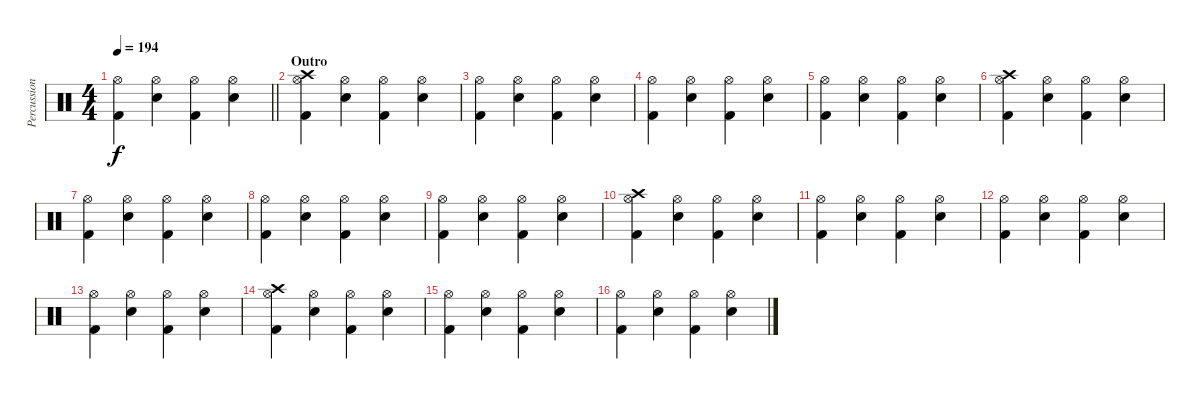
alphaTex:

\track ("Percussion" "Percussion") {instrument percussion}
\staff {score}
\articulation defaults
\ts (4 4)
\tempo 194
\clef neutral
\barLineRight lightlight
\ks c
("Hi-Hat (open)" "Kick (hit) 2").4{dy f} ("Hi-Hat (open)" "Electric Snare (hit)").4 ("Hi-Hat (open)" "Kick (hit) 2").4 ("Hi-Hat (open)" "Electric Snare (hit)").4 |
\section ("" "Outro")
("Crash high (hit)" "Hi-Hat (open)" "Kick (hit) 2").4 ("Hi-Hat (open)" "Electric Snare (hit)").4 ("Hi-Hat (open)" "Kick (hit) 2").4 ("Hi-Hat (open)" "Electric Snare (hit)").4 |
("Hi-Hat (open)" "Kick (hit) 2").4 ("Hi-Hat (open)" "Electric Snare (hit)").4 ("Hi-Hat (open)" "Kick (hit) 2").4 ("Hi-Hat (open)" "Electric Snare (hit)").4 |
("Hi-Hat (open)" "Kick (hit) 2").4 ("Hi-Hat (open)" "Electric Snare (hit)").4 ("Hi-Hat (open)" "Kick (hit) 2").4 ("Hi-Hat (open)" "Electric Snare (hit)").4 |
("Hi-Hat (open)" "Kick (hit) 2").4 ("Hi-Hat (open)" "Electric Snare (hit)").4 ("Hi-Hat (open)" "Kick (hit) 2").4 ("Hi-Hat (open)" "Electric Snare (hit)").4 |
("Crash high (hit)" "Hi-Hat (open)" "Kick (hit) 2").4 ("Hi-Hat (open)" "Electric Snare (hit)").4 ("Hi-Hat (open)" "Kick (hit) 2").4 ("Hi-Hat (open)" "Electric Snare (hit)").4 |
("Hi-Hat (open)" "Kick (hit) 2").4 ("Hi-Hat (open)" "Electric Snare (hit)").4 ("Hi-Hat (open)" "Kick (hit) 2").4 ("Hi-Hat (open)" "Electric Snare (hit)").4 |
("Hi-Hat (open)" "Kick (hit) 2").4 ("Hi-Hat (open)" "Electric Snare (hit)").4 ("Hi-Hat (open)" "Kick (hit) 2").4 ("Hi-Hat (open)" "Electric Snare (hit)").4 |
("Hi-Hat (open)" "Kick (hit) 2").4 ("Hi-Hat (open)" "Electric Snare (hit)").4 ("Hi-Hat (open)" "Kick (hit) 2").4 ("Hi-Hat (open)" "Electric Snare (hit)").4 |
("Crash high (hit)" "Hi-Hat (open)" "Kick (hit) 2").4 ("Hi-Hat (open)" "Electric Snare (hit)").4 ("Hi-Hat (open)" "Kick (hit) 2").4 ("Hi-Hat (open)" "Electric Snare (hit)").4 |
("Hi-Hat (open)" "Kick (hit) 2").4 ("Hi-Hat (open)" "Electric Snare (hit)").4 ("Hi-Hat (open)" "Kick (hit) 2").4 ("Hi-Hat (open)" "Electric Snare (hit)").4 |
("Hi-Hat (open)" "Kick (hit) 2").4 ("Hi-Hat (open)" "Electric Snare (hit)").4 ("Hi-Hat (open)" "Kick (hit) 2").4 ("Hi-Hat (open)" "Electric Snare (hit)").4 |
("Hi-Hat (open)" "Kick (hit) 2").4 ("Hi-Hat (open)" "Electric Snare (hit)").4 ("Hi-Hat (open)" "Kick (hit) 2").4 ("Hi-Hat (open)" "Electric Snare (hit)").4 |
("Crash high (hit)" "Hi-Hat (open)" "Kick (hit) 2").4 ("Hi-Hat (open)" "Electric Snare (hit)").4 ("Hi-Hat (open)" "Kick (hit) 2").4 ("Hi-Hat (open)" "Electric Snare (hit)").4 |
("Hi-Hat (open)" "Kick (hit) 2").4 ("Hi-Hat (open)" "Electric Snare (hit)").4 ("Hi-Hat (open)" "Kick (hit) 2").4 ("Hi-Hat (open)" "Electric Snare (hit)").4 |
("Hi-Hat (open)" "Kick (hit) 2").4 ("Hi-Hat (open)" "Electric Snare (hit)").4 ("Hi-Hat (open)" "Kick (hit) 2").4 ("Hi-Hat (open)" "Electric Snare (hit)").4
